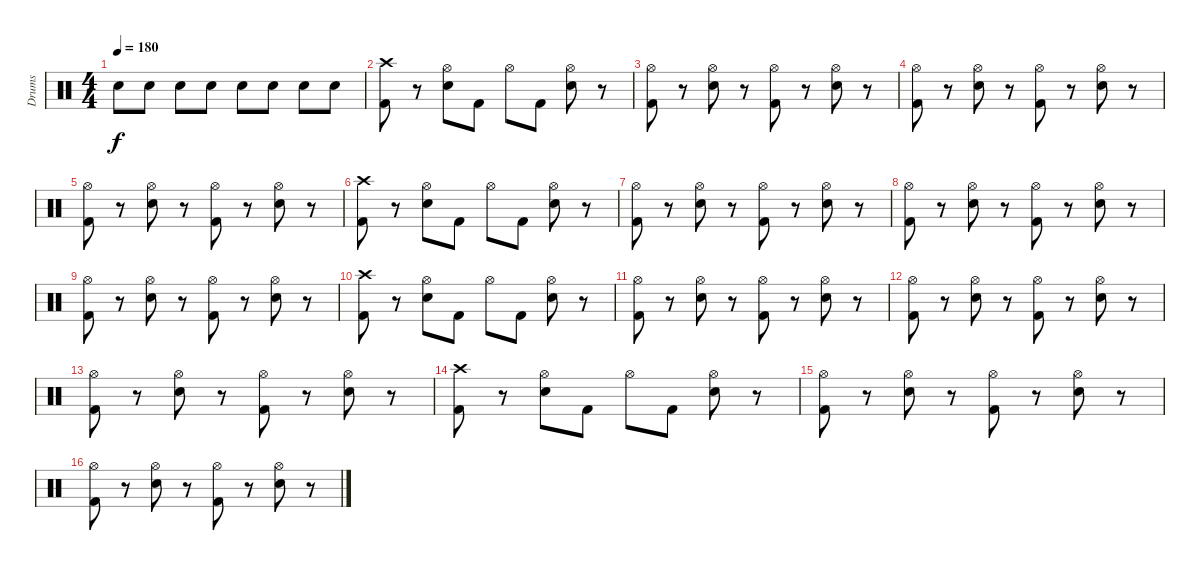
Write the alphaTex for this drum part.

\track ("Drums" "Drums") {instrument percussion}
\staff {score}
\articulation defaults
\ts (4 4)
\tempo 180
\clef neutral
\ks c "Snare (hit) 2".8{dy f} "Snare (hit) 2".8 "Snare (hit) 2".8 "Snare (hit) 2".8 "Snare (hit) 2".8 "Snare (hit) 2".8 "Snare (hit) 2".8 "Snare (hit) 2".8
|
("Crash high (hit)" "Kick (hit) 2").8 r.8 ("Hi-Hat (open)" "Snare (hit) 2").8 "Kick (hit) 2".8 "Hi-Hat (open)".8 "Kick (hit) 2".8 ("Hi-Hat (open)" "Snare (hit) 2").8 r.8 |
("Hi-Hat (open)" "Kick (hit) 2").8 r.8 ("Hi-Hat (open)" "Snare (hit) 2").8 r.8 ("Hi-Hat (open)" "Kick (hit) 2").8 r.8 ("Hi-Hat (open)" "Snare (hit) 2").8 r.8 |
("Hi-Hat (open)" "Kick (hit) 2").8 r.8 ("Hi-Hat (open)" "Snare (hit) 2").8 r.8 ("Hi-Hat (open)" "Kick (hit) 2").8 r.8 ("Hi-Hat (open)" "Snare (hit) 2").8 r.8 |
("Hi-Hat (open)" "Kick (hit) 2").8 r.8 ("Hi-Hat (open)" "Snare (hit) 2").8 r.8 ("Hi-Hat (open)" "Kick (hit) 2").8 r.8 ("Hi-Hat (open)" "Snare (hit) 2").8 r.8 |
("Crash high (hit)" "Kick (hit) 2").8 r.8 ("Hi-Hat (open)" "Snare (hit) 2").8 "Kick (hit) 2".8 "Hi-Hat (open)".8 "Kick (hit) 2".8 ("Hi-Hat (open)" "Snare (hit) 2").8 r.8 |
("Hi-Hat (open)" "Kick (hit) 2").8 r.8 ("Hi-Hat (open)" "Snare (hit) 2").8 r.8 ("Hi-Hat (open)" "Kick (hit) 2").8 r.8 ("Hi-Hat (open)" "Snare (hit) 2").8 r.8 |
("Hi-Hat (open)" "Kick (hit) 2").8 r.8 ("Hi-Hat (open)" "Snare (hit) 2").8 r.8 ("Hi-Hat (open)" "Kick (hit) 2").8 r.8 ("Hi-Hat (open)" "Snare (hit) 2").8 r.8 |
("Hi-Hat (open)" "Kick (hit) 2").8 r.8 ("Hi-Hat (open)" "Snare (hit) 2").8 r.8 ("Hi-Hat (open)" "Kick (hit) 2").8 r.8 ("Hi-Hat (open)" "Snare (hit) 2").8 r.8 |
("Crash high (hit)" "Kick (hit) 2").8 r.8 ("Hi-Hat (open)" "Snare (hit) 2").8 "Kick (hit) 2".8 "Hi-Hat (open)".8 "Kick (hit) 2".8 ("Hi-Hat (open)" "Snare (hit) 2").8 r.8 |
("Hi-Hat (open)" "Kick (hit) 2").8 r.8 ("Hi-Hat (open)" "Snare (hit) 2").8 r.8 ("Hi-Hat (open)" "Kick (hit) 2").8 r.8 ("Hi-Hat (open)" "Snare (hit) 2").8 r.8 |
("Hi-Hat (open)" "Kick (hit) 2").8 r.8 ("Hi-Hat (open)" "Snare (hit) 2").8 r.8 ("Hi-Hat (open)" "Kick (hit) 2").8 r.8 ("Hi-Hat (open)" "Snare (hit) 2").8 r.8 |
("Hi-Hat (open)" "Kick (hit) 2").8 r.8 ("Hi-Hat (open)" "Snare (hit) 2").8 r.8 ("Hi-Hat (open)" "Kick (hit) 2").8 r.8 ("Hi-Hat (open)" "Snare (hit) 2").8 r.8 |
("Crash high (hit)" "Kick (hit) 2").8 r.8 ("Hi-Hat (open)" "Snare (hit) 2").8 "Kick (hit) 2".8 "Hi-Hat (open)".8 "Kick (hit) 2".8 ("Hi-Hat (open)" "Snare (hit) 2").8 r.8 |
("Hi-Hat (open)" "Kick (hit) 2").8 r.8 ("Hi-Hat (open)" "Snare (hit) 2").8 r.8 ("Hi-Hat (open)" "Kick (hit) 2").8 r.8 ("Hi-Hat (open)" "Snare (hit) 2").8 r.8 |
("Hi-Hat (open)" "Kick (hit) 2").8 r.8 ("Hi-Hat (open)" "Snare (hit) 2").8 r.8 ("Hi-Hat (open)" "Kick (hit) 2").8 r.8 ("Hi-Hat (open)" "Snare (hit) 2").8 r.8
